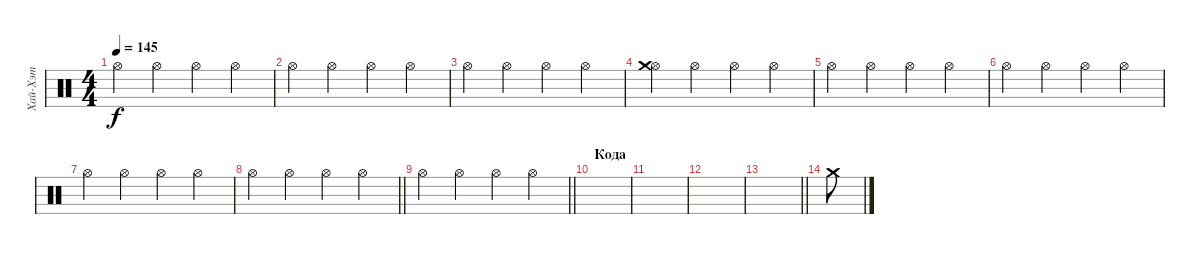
\track ("Хай-Хэт" "Хай-Хэт") {instrument percussion}
\staff {score}
\articulation defaults
\ts (4 4)
\tempo 145
\clef neutral
\ks c "Hi-Hat (open)".4{dy f} "Hi-Hat (open)".4 "Hi-Hat (open)".4 "Hi-Hat (open)".4
|
"Hi-Hat (open)".4 "Hi-Hat (open)".4 "Hi-Hat (open)".4 "Hi-Hat (open)".4 |
"Hi-Hat (open)".4 "Hi-Hat (open)".4 "Hi-Hat (open)".4 "Hi-Hat (open)".4 |
("Hi-Hat (open)" "Crash medium (hit)").4 "Hi-Hat (open)".4 "Hi-Hat (open)".4 "Hi-Hat (open)".4 |
"Hi-Hat (open)".4 "Hi-Hat (open)".4 "Hi-Hat (open)".4 "Hi-Hat (open)".4 |
"Hi-Hat (open)".4 "Hi-Hat (open)".4 "Hi-Hat (open)".4 "Hi-Hat (open)".4 |
"Hi-Hat (open)".4 "Hi-Hat (open)".4 "Hi-Hat (open)".4 "Hi-Hat (open)".4 |
\barLineRight lightlight "Hi-Hat (open)".4 "Hi-Hat (open)".4 "Hi-Hat (open)".4 "Hi-Hat (open)".4
|
\barLineRight lightlight "Hi-Hat (open)".4 "Hi-Hat (open)".4 "Hi-Hat (open)".4 "Hi-Hat (open)".4
|
\section ("" "Кода")
|
|
|
\barLineRight lightlight
|
"Crash medium (hit)".8
